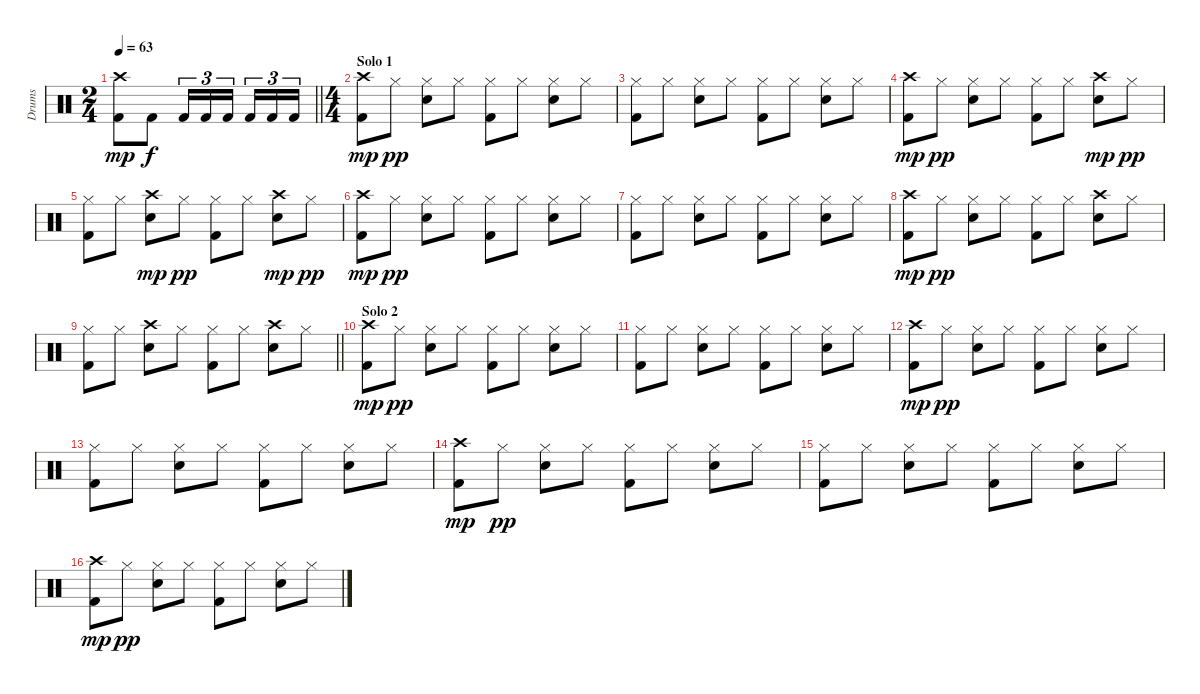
\track ("Drums" "Drums") {instrument percussion}
\staff {score}
\articulation defaults
\ts (2 4)
\tempo 63
\clef neutral
\barLineRight lightlight
\ks c
("Crash high (hit)" "Kick (hit) 2").8{dy mp} "Kick (hit) 2".8{dy f} "Kick (hit) 2".16{tu (3 2)} "Kick (hit) 2".16{tu (3 2)} "Kick (hit) 2".16{tu (3 2) beam splitsecondary} "Kick (hit) 2".16{tu (3 2)} "Kick (hit) 2".16{tu (3 2)} "Kick (hit) 2".16{tu (3 2)} |
\ts (4 4)
\section ("" "Solo 1")
("Crash high (hit)" "Kick (hit) 2").8{dy mp} "Hi-Hat (closed)".8{dy pp} ("Hi-Hat (closed)" "Snare (hit) 2").8 "Hi-Hat (closed)".8 ("Hi-Hat (closed)" "Kick (hit) 2").8 "Hi-Hat (closed)".8 ("Hi-Hat (closed)" "Snare (hit) 2").8 "Hi-Hat (closed)".8 |
("Hi-Hat (closed)" "Kick (hit) 2").8 "Hi-Hat (closed)".8 ("Hi-Hat (closed)" "Snare (hit) 2").8 "Hi-Hat (closed)".8 ("Hi-Hat (closed)" "Kick (hit) 2").8 "Hi-Hat (closed)".8 ("Hi-Hat (closed)" "Snare (hit) 2").8 "Hi-Hat (closed)".8 |
("Crash high (hit)" "Kick (hit) 2").8{dy mp} "Hi-Hat (closed)".8{dy pp} ("Hi-Hat (closed)" "Snare (hit) 2").8 "Hi-Hat (closed)".8 ("Hi-Hat (closed)" "Kick (hit) 2").8 "Hi-Hat (closed)".8 ("Crash high (hit)" "Snare (hit) 2").8{dy mp} "Hi-Hat (closed)".8{dy pp} |
("Hi-Hat (closed)" "Kick (hit) 2").8 "Hi-Hat (closed)".8 ("Crash high (hit)" "Snare (hit) 2").8{dy mp} "Hi-Hat (closed)".8{dy pp} ("Hi-Hat (closed)" "Kick (hit) 2").8 "Hi-Hat (closed)".8 ("Crash high (hit)" "Snare (hit) 2").8{dy mp} "Hi-Hat (closed)".8{dy pp} |
("Crash high (hit)" "Kick (hit) 2").8{dy mp} "Hi-Hat (closed)".8{dy pp} ("Hi-Hat (closed)" "Snare (hit) 2").8 "Hi-Hat (closed)".8 ("Hi-Hat (closed)" "Kick (hit) 2").8 "Hi-Hat (closed)".8 ("Hi-Hat (closed)" "Snare (hit) 2").8 "Hi-Hat (closed)".8 |
("Hi-Hat (closed)" "Kick (hit) 2").8 "Hi-Hat (closed)".8 ("Hi-Hat (closed)" "Snare (hit) 2").8 "Hi-Hat (closed)".8 ("Hi-Hat (closed)" "Kick (hit) 2").8 "Hi-Hat (closed)".8 ("Hi-Hat (closed)" "Snare (hit) 2").8 "Hi-Hat (closed)".8 |
("Crash high (hit)" "Kick (hit) 2").8{dy mp} "Hi-Hat (closed)".8{dy pp} ("Hi-Hat (closed)" "Snare (hit) 2").8 "Hi-Hat (closed)".8 ("Hi-Hat (closed)" "Kick (hit) 2").8 "Hi-Hat (closed)".8 ("Crash high (hit)" "Snare (hit) 2").8 "Hi-Hat (closed)".8 |
\barLineRight lightlight
("Hi-Hat (closed)" "Kick (hit) 2").8 "Hi-Hat (closed)".8 ("Crash high (hit)" "Snare (hit) 2").8 "Hi-Hat (closed)".8 ("Hi-Hat (closed)" "Kick (hit) 2").8 "Hi-Hat (closed)".8 ("Crash high (hit)" "Snare (hit) 2").8 "Hi-Hat (closed)".8 |
\section ("" "Solo 2")
("Crash high (hit)" "Kick (hit) 2").8{dy mp} "Hi-Hat (closed)".8{dy pp} ("Hi-Hat (closed)" "Snare (hit) 2").8 "Hi-Hat (closed)".8 ("Hi-Hat (closed)" "Kick (hit) 2").8 "Hi-Hat (closed)".8 ("Hi-Hat (closed)" "Snare (hit) 2").8 "Hi-Hat (closed)".8 |
("Hi-Hat (closed)" "Kick (hit) 2").8 "Hi-Hat (closed)".8 ("Hi-Hat (closed)" "Snare (hit) 2").8 "Hi-Hat (closed)".8 ("Hi-Hat (closed)" "Kick (hit) 2").8 "Hi-Hat (closed)".8 ("Hi-Hat (closed)" "Snare (hit) 2").8 "Hi-Hat (closed)".8 |
("Crash high (hit)" "Kick (hit) 2").8{dy mp} "Hi-Hat (closed)".8{dy pp} ("Hi-Hat (closed)" "Snare (hit) 2").8 "Hi-Hat (closed)".8 ("Hi-Hat (closed)" "Kick (hit) 2").8 "Hi-Hat (closed)".8 ("Hi-Hat (closed)" "Snare (hit) 2").8 "Hi-Hat (closed)".8 |
("Hi-Hat (closed)" "Kick (hit) 2").8 "Hi-Hat (closed)".8 ("Hi-Hat (closed)" "Snare (hit) 2").8 "Hi-Hat (closed)".8 ("Hi-Hat (closed)" "Kick (hit) 2").8 "Hi-Hat (closed)".8 ("Hi-Hat (closed)" "Snare (hit) 2").8 "Hi-Hat (closed)".8 |
("Crash high (hit)" "Kick (hit) 2").8{dy mp} "Hi-Hat (closed)".8{dy pp} ("Hi-Hat (closed)" "Snare (hit) 2").8 "Hi-Hat (closed)".8 ("Hi-Hat (closed)" "Kick (hit) 2").8 "Hi-Hat (closed)".8 ("Hi-Hat (closed)" "Snare (hit) 2").8 "Hi-Hat (closed)".8 |
("Hi-Hat (closed)" "Kick (hit) 2").8 "Hi-Hat (closed)".8 ("Hi-Hat (closed)" "Snare (hit) 2").8 "Hi-Hat (closed)".8 ("Hi-Hat (closed)" "Kick (hit) 2").8 "Hi-Hat (closed)".8 ("Hi-Hat (closed)" "Snare (hit) 2").8 "Hi-Hat (closed)".8 |
("Crash high (hit)" "Kick (hit) 2").8{dy mp} "Hi-Hat (closed)".8{dy pp} ("Hi-Hat (closed)" "Snare (hit) 2").8 "Hi-Hat (closed)".8 ("Hi-Hat (closed)" "Kick (hit) 2").8 "Hi-Hat (closed)".8 ("Hi-Hat (closed)" "Snare (hit) 2").8 "Hi-Hat (closed)".8
